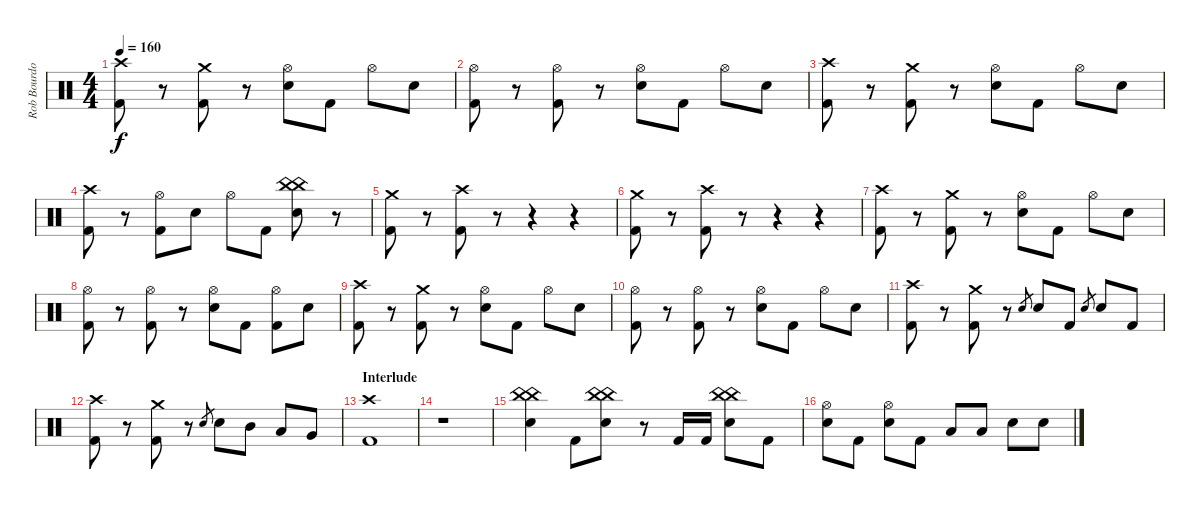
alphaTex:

\track ("Rob Bourdon (Drums)" "Rob Bourdo") {instrument percussion}
\staff {score}
\articulation defaults
\ts (4 4)
\tempo 160
\clef neutral
\ks c
("Crash high (hit)" "Kick (hit) 2").8{dy f} r.8 ("Crash medium (hit)" "Kick (hit) 2").8 r.8 ("Hi-Hat (open)" "Electric Snare (hit)").8 "Kick (hit) 2".8 "Hi-Hat (open)".8 "Electric Snare (hit)".8 |
("Hi-Hat (open)" "Kick (hit) 2").8 r.8 ("Hi-Hat (open)" "Kick (hit) 2").8 r.8 ("Hi-Hat (open)" "Electric Snare (hit)").8 "Kick (hit) 2".8 "Hi-Hat (open)".8 "Electric Snare (hit)".8 |
("Crash high (hit)" "Kick (hit) 2").8 r.8 ("Crash medium (hit)" "Kick (hit) 2").8 r.8 ("Hi-Hat (open)" "Electric Snare (hit)").8 "Kick (hit) 2".8 "Hi-Hat (open)".8 "Electric Snare (hit)".8 |
("Crash high (hit)" "Kick (hit) 2").8 r.8 ("Hi-Hat (open)" "Kick (hit) 2").8 "Electric Snare (hit)".8 "Hi-Hat (open)".8 "Kick (hit) 2".8 ("China (hit)" "China (hit)" "Electric Snare (hit)").8 r.8 |
("Crash medium (hit)" "Kick (hit) 2").8 r.8 ("Crash high (hit)" "Kick (hit) 2").8 r.8 r.4 r.4 |
("Crash medium (hit)" "Kick (hit) 2").8 r.8 ("Crash high (hit)" "Kick (hit) 2").8 r.8 r.4 r.4 |
("Crash high (hit)" "Kick (hit) 2").8 r.8 ("Crash medium (hit)" "Kick (hit) 2").8 r.8 ("Hi-Hat (open)" "Electric Snare (hit)").8 "Kick (hit) 2".8 "Hi-Hat (open)".8 "Electric Snare (hit)".8 |
("Hi-Hat (open)" "Kick (hit) 2").8 r.8 ("Hi-Hat (open)" "Kick (hit) 2").8 r.8 ("Hi-Hat (open)" "Electric Snare (hit)").8 "Kick (hit) 2".8 ("Hi-Hat (open)" "Kick (hit) 2").8 "Electric Snare (hit)".8 |
("Crash high (hit)" "Kick (hit) 2").8 r.8 ("Crash medium (hit)" "Kick (hit) 2").8 r.8 ("Hi-Hat (open)" "Electric Snare (hit)").8 "Kick (hit) 2".8 "Hi-Hat (open)".8 "Electric Snare (hit)".8 |
("Hi-Hat (open)" "Kick (hit) 2").8 r.8 ("Hi-Hat (open)" "Kick (hit) 2").8 r.8 ("Hi-Hat (open)" "Electric Snare (hit)").8 "Kick (hit) 2".8 "Hi-Hat (open)".8 "Electric Snare (hit)".8 |
("Crash high (hit)" "Kick (hit) 2").8 r.8 ("Crash medium (hit)" "Kick (hit) 2").8 r.8 "Electric Snare (hit)".8{gr} "Electric Snare (hit)".8 "Kick (hit) 2".8 "Electric Snare (hit)".8{gr} "Electric Snare (hit)".8 "Kick (hit) 2".8 |
("Crash high (hit)" "Kick (hit) 2").8 r.8 ("Crash medium (hit)" "Kick (hit) 2").8 r.8 "Electric Snare (hit)".8{gr} "Electric Snare (hit)".8 "Mid Tom (hit)".8 "Low Tom (hit)".8 "Very Low Tom (hit)".8 |
\section ("" "Interlude")
("Crash high (hit)" "Kick (hit) 2").1 |
r.1 |
("China (hit)" "China (hit)" "Electric Snare (hit)").4 "Kick (hit) 2".8 ("China (hit)" "China (hit)" "Electric Snare (hit)").8 r.8 "Kick (hit) 2".16 "Kick (hit) 2".16 ("China (hit)" "China (hit)" "Electric Snare (hit)").8 "Kick (hit) 2".8 |
("Hi-Hat (open)" "Electric Snare (hit)").8 "Kick (hit) 2".8 ("Hi-Hat (open)" "Electric Snare (hit)").8 "Kick (hit) 2".8 "Low Tom (hit)".8 "Low Tom (hit)".8 "Electric Snare (hit)".8 "Electric Snare (hit)".8
